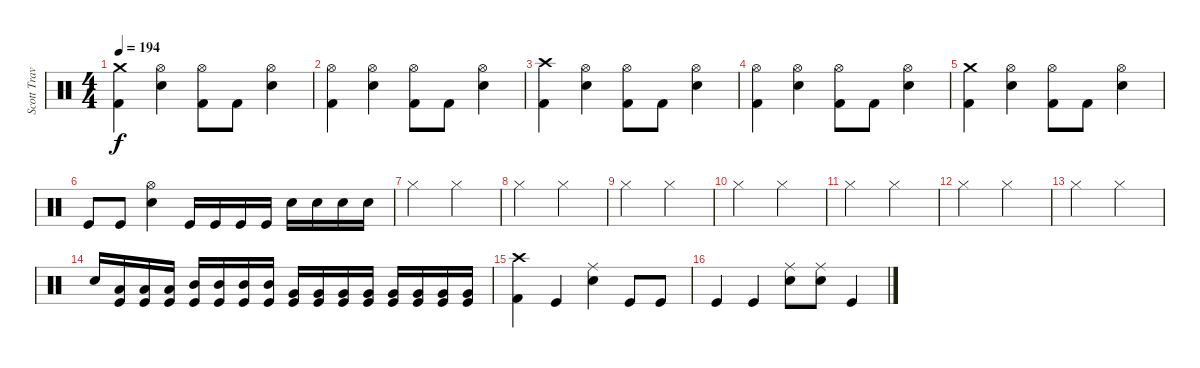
\track ("Scott Travis" "Scott Trav") {instrument percussion}
\staff {score}
\articulation defaults
\ts (4 4)
\tempo 194
\clef neutral
\ks c
("Kick (hit) 2" "Crash medium (hit)").4{dy f} ("Hi-Hat (open)" "Snare (hit) 2").4 ("Hi-Hat (open)" "Kick (hit) 2").8 "Kick (hit) 2".8 ("Snare (hit) 2" "Hi-Hat (open)").4 |
("Kick (hit) 2" "Hi-Hat (open)").4 ("Hi-Hat (open)" "Snare (hit) 2").4 ("Hi-Hat (open)" "Kick (hit) 2").8 "Kick (hit) 2".8 ("Snare (hit) 2" "Hi-Hat (open)").4 |
("Kick (hit) 2" "Crash high (hit)").4 ("Hi-Hat (open)" "Snare (hit) 2").4 ("Hi-Hat (open)" "Kick (hit) 2").8 "Kick (hit) 2".8 ("Snare (hit) 2" "Hi-Hat (open)").4 |
("Kick (hit) 2" "Hi-Hat (open)").4 ("Hi-Hat (open)" "Snare (hit) 2").4 ("Hi-Hat (open)" "Kick (hit) 2").8 "Kick (hit) 2".8 ("Snare (hit) 2" "Hi-Hat (open)").4 |
("Kick (hit) 2" "Crash medium (hit)").4 ("Hi-Hat (open)" "Snare (hit) 2").4 ("Hi-Hat (open)" "Kick (hit) 2").8 "Kick (hit) 2".8 ("Snare (hit) 2" "Hi-Hat (open)").4 |
"Kick (hit)".8 "Kick (hit)".8 ("Hi-Hat (open)" "Snare (hit) 2").4 "Kick (hit)".16 "Kick (hit)".16 "Kick (hit)".16 "Kick (hit)".16 "Snare (hit) 2".16 "Snare (hit) 2".16 "Snare (hit) 2".16 "Snare (hit) 2".16 |
"Hi-Hat (closed)".2 "Hi-Hat (closed)".2 |
"Hi-Hat (closed)".2 "Hi-Hat (closed)".2 |
"Hi-Hat (closed)".2 "Hi-Hat (closed)".2 |
"Hi-Hat (closed)".2 "Hi-Hat (closed)".2 |
"Hi-Hat (closed)".2 "Hi-Hat (closed)".2 |
"Hi-Hat (closed)".2 "Hi-Hat (closed)".2 |
"Hi-Hat (closed)".2 "Hi-Hat (closed)".2 |
"Snare (hit) 2".16 ("Low Tom (hit)" "Kick (hit)").16 ("Low Tom (hit)" "Kick (hit)").16 ("Low Tom (hit)" "Kick (hit)").16 ("Mid Tom (hit)" "Kick (hit)").16 ("Mid Tom (hit)" "Kick (hit)").16 ("Mid Tom (hit)" "Kick (hit)").16 ("Mid Tom (hit)" "Kick (hit)").16 ("Very Low Tom (hit)" "Kick (hit)").16 ("Very Low Tom (hit)" "Kick (hit)").16 ("Very Low Tom (hit)" "Kick (hit)").16 ("Very Low Tom (hit)" "Kick (hit)").16 ("Very Low Tom (hit)" "Kick (hit)").16 ("Very Low Tom (hit)" "Kick (hit)").16 ("Very Low Tom (hit)" "Kick (hit)").16 ("Very Low Tom (hit)" "Kick (hit)").16 |
("Kick (hit) 2" "Crash high (hit)").4 "Kick (hit)".4 ("Snare (hit) 2" "Ride (middle)").4 "Kick (hit)".8 "Kick (hit)".8 |
"Kick (hit)".4 "Kick (hit)".4 ("Snare (hit) 2" "Ride (middle)").8 ("Snare (hit) 2" "Ride (middle)").8 "Kick (hit)".4
